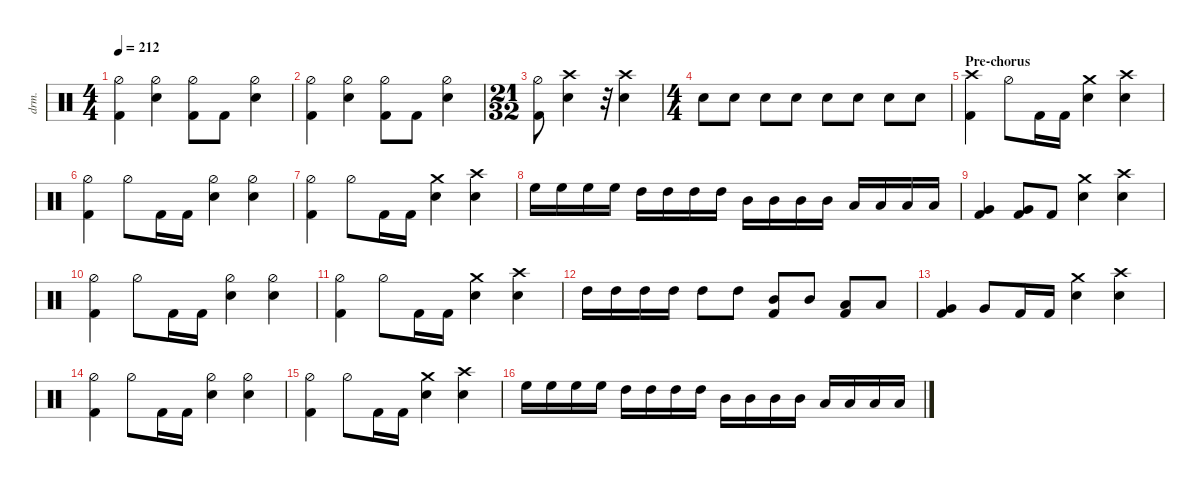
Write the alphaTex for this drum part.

\defaultSystemsLayout 4
\hideDynamics
\bracketExtendMode nobrackets
\track ("Drums" "drm.") {defaultSystemsLayout 4 multiBarRest instrument percussion}
\staff
\articulation defaults
\ts (4 4)
\tempo 212
\clef neutral
\ks c
("Kick (hit) 2" "Hi-Hat (half)").4{dy f} ("Hi-Hat (half)" "Snare (hit) 2").4 ("Hi-Hat (half)" "Kick (hit) 2").8 "Kick (hit) 2".8 ("Hi-Hat (half)" "Snare (hit) 2").4 |
("Kick (hit) 2" "Hi-Hat (half)").4 ("Hi-Hat (half)" "Snare (hit) 2").4 ("Hi-Hat (half)" "Kick (hit) 2").8 "Kick (hit) 2".8 ("Hi-Hat (half)" "Snare (hit) 2").4 |
\ts (21 32)
\beaming (8 3 2)
("Kick (hit) 2" "Hi-Hat (half)").8 ("Snare (hit) 2" "Crash high (hit)").4 r.32 ("Snare (hit) 2" "Crash high (hit)").4 |
\ts (4 4)
\beaming (8 2 2 2 2)
"Snare (hit) 2".8 "Snare (hit) 2".8 "Snare (hit) 2".8 "Snare (hit) 2".8 "Snare (hit) 2".8 "Snare (hit) 2".8 "Snare (hit) 2".8 "Snare (hit) 2".8 |
\section ("" "Pre-chorus")
("Crash high (hit)" "Kick (hit) 2").4 "Hi-Hat (half)".8 "Kick (hit) 2".16 "Kick (hit) 2".16 ("Snare (hit) 2" "Crash medium (hit)").4 ("Snare (hit) 2" "Crash high (hit)").4 |
("Hi-Hat (half)" "Kick (hit) 2").4 "Hi-Hat (half)".8 "Kick (hit) 2".16 "Kick (hit) 2".16 ("Snare (hit) 2" "Hi-Hat (half)").4 ("Snare (hit) 2" "Hi-Hat (half)").4 |
("Hi-Hat (half)" "Kick (hit) 2").4 "Hi-Hat (half)".8 "Kick (hit) 2".16 "Kick (hit) 2".16 ("Snare (hit) 2" "Crash medium (hit)").4 ("Snare (hit) 2" "Crash high (hit)").4 |
"High Floor Tom (hit)".16{dy fff} "High Floor Tom (hit)".16 "High Floor Tom (hit)".16 "High Floor Tom (hit)".16 "High Tom (hit)".16 "High Tom (hit)".16 "High Tom (hit)".16 "High Tom (hit)".16 "Mid Tom (hit)".16 "Mid Tom (hit)".16 "Mid Tom (hit)".16 "Mid Tom (hit)".16 "Low Tom (hit)".16 "Low Tom (hit)".16 "Low Tom (hit)".16 "Low Tom (hit)".16 |
("Kick (hit) 2" "Very Low Tom (hit)").4{dy f} ("Kick (hit) 2" "Very Low Tom (hit)").8 "Kick (hit) 2".8 ("Snare (hit) 2" "Crash medium (hit)").4 ("Snare (hit) 2" "Crash high (hit)").4 |
("Hi-Hat (half)" "Kick (hit) 2").4 "Hi-Hat (half)".8 "Kick (hit) 2".16 "Kick (hit) 2".16 ("Snare (hit) 2" "Hi-Hat (half)").4 ("Snare (hit) 2" "Hi-Hat (half)").4 |
("Hi-Hat (half)" "Kick (hit) 2").4 "Hi-Hat (half)".8 "Kick (hit) 2".16 "Kick (hit) 2".16 ("Snare (hit) 2" "Crash medium (hit)").4 ("Snare (hit) 2" "Crash high (hit)").4 |
"High Tom (hit)".16{dy fff} "High Tom (hit)".16 "High Tom (hit)".16 "High Tom (hit)".16 "High Tom (hit)".8 "High Tom (hit)".8 ("Mid Tom (hit)" "Kick (hit) 2").8{dy f} "Mid Tom (hit)".8{dy fff} ("Low Tom (hit)" "Kick (hit) 2").8{dy f} "Low Tom (hit)".8{dy fff} |
("Kick (hit) 2" "Very Low Tom (hit)").4{dy f} "Very Low Tom (hit)".8{dy fff} "Kick (hit) 2".16{dy f} "Kick (hit) 2".16 ("Snare (hit) 2" "Crash medium (hit)").4 ("Snare (hit) 2" "Crash high (hit)").4 |
("Hi-Hat (half)" "Kick (hit) 2").4 "Hi-Hat (half)".8 "Kick (hit) 2".16 "Kick (hit) 2".16 ("Snare (hit) 2" "Hi-Hat (half)").4 ("Snare (hit) 2" "Hi-Hat (half)").4 |
("Hi-Hat (half)" "Kick (hit) 2").4 "Hi-Hat (half)".8 "Kick (hit) 2".16 "Kick (hit) 2".16 ("Snare (hit) 2" "Crash medium (hit)").4 ("Snare (hit) 2" "Crash high (hit)").4 |
"High Floor Tom (hit)".16{dy fff} "High Floor Tom (hit)".16 "High Floor Tom (hit)".16 "High Floor Tom (hit)".16 "High Tom (hit)".16 "High Tom (hit)".16 "High Tom (hit)".16 "High Tom (hit)".16 "Mid Tom (hit)".16 "Mid Tom (hit)".16 "Mid Tom (hit)".16 "Mid Tom (hit)".16 "Low Tom (hit)".16 "Low Tom (hit)".16 "Low Tom (hit)".16 "Low Tom (hit)".16
